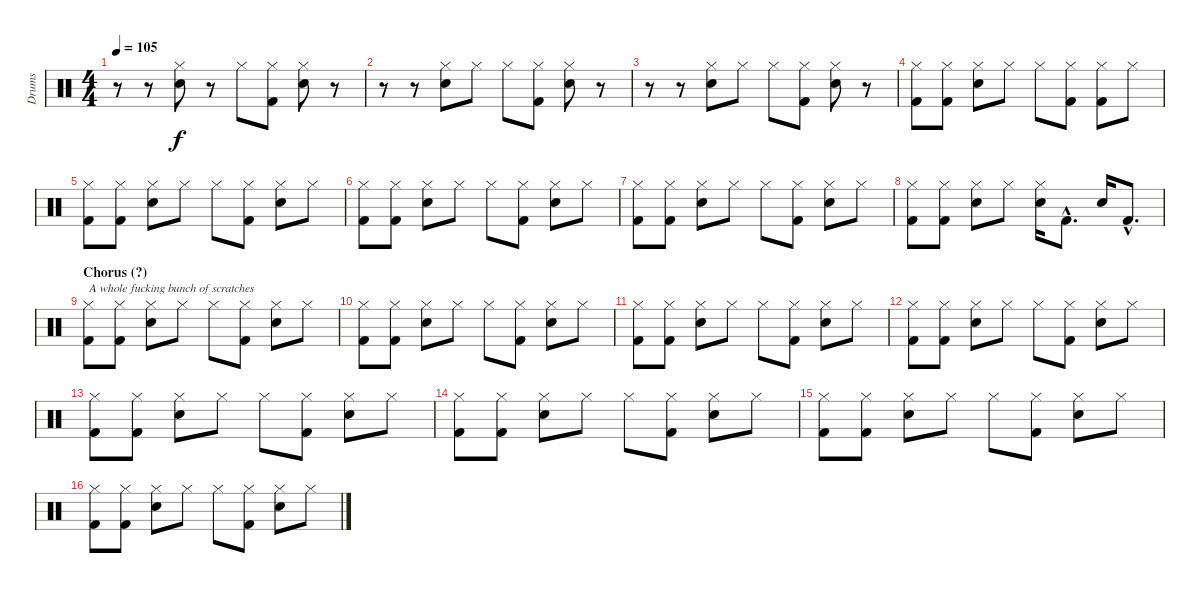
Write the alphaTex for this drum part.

\track ("Drums" "Drums") {instrument percussion}
\staff {score}
\articulation defaults
\ts (4 4)
\tempo 105
\clef neutral
\ks c
r.8{dy f} r.8 ("Hi-Hat (closed)" "Snare (hit) 2").8 r.8 "Hi-Hat (closed)".8 ("Hi-Hat (closed)" "Kick (hit) 2").8 ("Hi-Hat (closed)" "Snare (hit) 2").8 r.8 |
r.8 r.8 ("Hi-Hat (closed)" "Snare (hit) 2").8 "Hi-Hat (closed)".8 "Hi-Hat (closed)".8 ("Hi-Hat (closed)" "Kick (hit) 2").8 ("Hi-Hat (closed)" "Snare (hit) 2").8 r.8 |
r.8 r.8 ("Hi-Hat (closed)" "Snare (hit) 2").8 "Hi-Hat (closed)".8 "Hi-Hat (closed)".8 ("Hi-Hat (closed)" "Kick (hit) 2").8 ("Hi-Hat (closed)" "Snare (hit) 2").8 r.8 |
("Hi-Hat (closed)" "Kick (hit) 2").8 ("Hi-Hat (closed)" "Kick (hit) 2").8 ("Hi-Hat (closed)" "Snare (hit) 2").8 "Hi-Hat (closed)".8 "Hi-Hat (closed)".8 ("Hi-Hat (closed)" "Kick (hit) 2").8 ("Hi-Hat (closed)" "Kick (hit) 2").8 "Hi-Hat (closed)".8 |
("Hi-Hat (closed)" "Kick (hit) 2").8 ("Hi-Hat (closed)" "Kick (hit) 2").8 ("Hi-Hat (closed)" "Snare (hit) 2").8 "Hi-Hat (closed)".8 "Hi-Hat (closed)".8 ("Hi-Hat (closed)" "Kick (hit) 2").8 ("Hi-Hat (closed)" "Snare (hit) 2").8 "Hi-Hat (closed)".8 |
("Hi-Hat (closed)" "Kick (hit) 2").8 ("Hi-Hat (closed)" "Kick (hit) 2").8 ("Hi-Hat (closed)" "Snare (hit) 2").8 "Hi-Hat (closed)".8 "Hi-Hat (closed)".8 ("Hi-Hat (closed)" "Kick (hit) 2").8 ("Hi-Hat (closed)" "Snare (hit) 2").8 "Hi-Hat (closed)".8 |
("Hi-Hat (closed)" "Kick (hit) 2").8 ("Hi-Hat (closed)" "Kick (hit) 2").8 ("Hi-Hat (closed)" "Snare (hit) 2").8 "Hi-Hat (closed)".8 "Hi-Hat (closed)".8 ("Hi-Hat (closed)" "Kick (hit) 2").8 ("Hi-Hat (closed)" "Snare (hit) 2").8 "Hi-Hat (closed)".8 |
("Hi-Hat (closed)" "Kick (hit) 2").8 ("Hi-Hat (closed)" "Kick (hit) 2").8 ("Hi-Hat (closed)" "Snare (hit) 2").8 "Hi-Hat (closed)".8 ("Hi-Hat (closed)" "Snare (hit) 2").16 "Kick (hit) 2"{hac}.8{d} "Snare (hit) 2".16 "Kick (hit) 2"{hac}.8{d} |
\section ("" "Chorus (?)")
("Hi-Hat (closed)" "Kick (hit) 2").8{txt "A whole fucking bunch of scratches"} ("Hi-Hat (closed)" "Kick (hit) 2").8 ("Hi-Hat (closed)" "Snare (hit) 2").8 "Hi-Hat (closed)".8 "Hi-Hat (closed)".8 ("Hi-Hat (closed)" "Kick (hit) 2").8 ("Hi-Hat (closed)" "Snare (hit) 2").8 "Hi-Hat (closed)".8 |
("Hi-Hat (closed)" "Kick (hit) 2").8 ("Hi-Hat (closed)" "Kick (hit) 2").8 ("Hi-Hat (closed)" "Snare (hit) 2").8 "Hi-Hat (closed)".8 "Hi-Hat (closed)".8 ("Hi-Hat (closed)" "Kick (hit) 2").8 ("Hi-Hat (closed)" "Snare (hit) 2").8 "Hi-Hat (closed)".8 |
("Hi-Hat (closed)" "Kick (hit) 2").8 ("Hi-Hat (closed)" "Kick (hit) 2").8 ("Hi-Hat (closed)" "Snare (hit) 2").8 "Hi-Hat (closed)".8 "Hi-Hat (closed)".8 ("Hi-Hat (closed)" "Kick (hit) 2").8 ("Hi-Hat (closed)" "Snare (hit) 2").8 "Hi-Hat (closed)".8 |
("Hi-Hat (closed)" "Kick (hit) 2").8 ("Hi-Hat (closed)" "Kick (hit) 2").8 ("Hi-Hat (closed)" "Snare (hit) 2").8 "Hi-Hat (closed)".8 "Hi-Hat (closed)".8 ("Hi-Hat (closed)" "Kick (hit) 2").8 ("Hi-Hat (closed)" "Snare (hit) 2").8 "Hi-Hat (closed)".8 |
("Hi-Hat (closed)" "Kick (hit) 2").8 ("Hi-Hat (closed)" "Kick (hit) 2").8 ("Hi-Hat (closed)" "Snare (hit) 2").8 "Hi-Hat (closed)".8 "Hi-Hat (closed)".8 ("Hi-Hat (closed)" "Kick (hit) 2").8 ("Hi-Hat (closed)" "Snare (hit) 2").8 "Hi-Hat (closed)".8 |
("Hi-Hat (closed)" "Kick (hit) 2").8 ("Hi-Hat (closed)" "Kick (hit) 2").8 ("Hi-Hat (closed)" "Snare (hit) 2").8 "Hi-Hat (closed)".8 "Hi-Hat (closed)".8 ("Hi-Hat (closed)" "Kick (hit) 2").8 ("Hi-Hat (closed)" "Snare (hit) 2").8 "Hi-Hat (closed)".8 |
("Hi-Hat (closed)" "Kick (hit) 2").8 ("Hi-Hat (closed)" "Kick (hit) 2").8 ("Hi-Hat (closed)" "Snare (hit) 2").8 "Hi-Hat (closed)".8 "Hi-Hat (closed)".8 ("Hi-Hat (closed)" "Kick (hit) 2").8 ("Hi-Hat (closed)" "Snare (hit) 2").8 "Hi-Hat (closed)".8 |
("Hi-Hat (closed)" "Kick (hit) 2").8 ("Hi-Hat (closed)" "Kick (hit) 2").8 ("Hi-Hat (closed)" "Snare (hit) 2").8 "Hi-Hat (closed)".8 "Hi-Hat (closed)".8 ("Hi-Hat (closed)" "Kick (hit) 2").8 ("Hi-Hat (closed)" "Snare (hit) 2").8 "Hi-Hat (closed)".8
